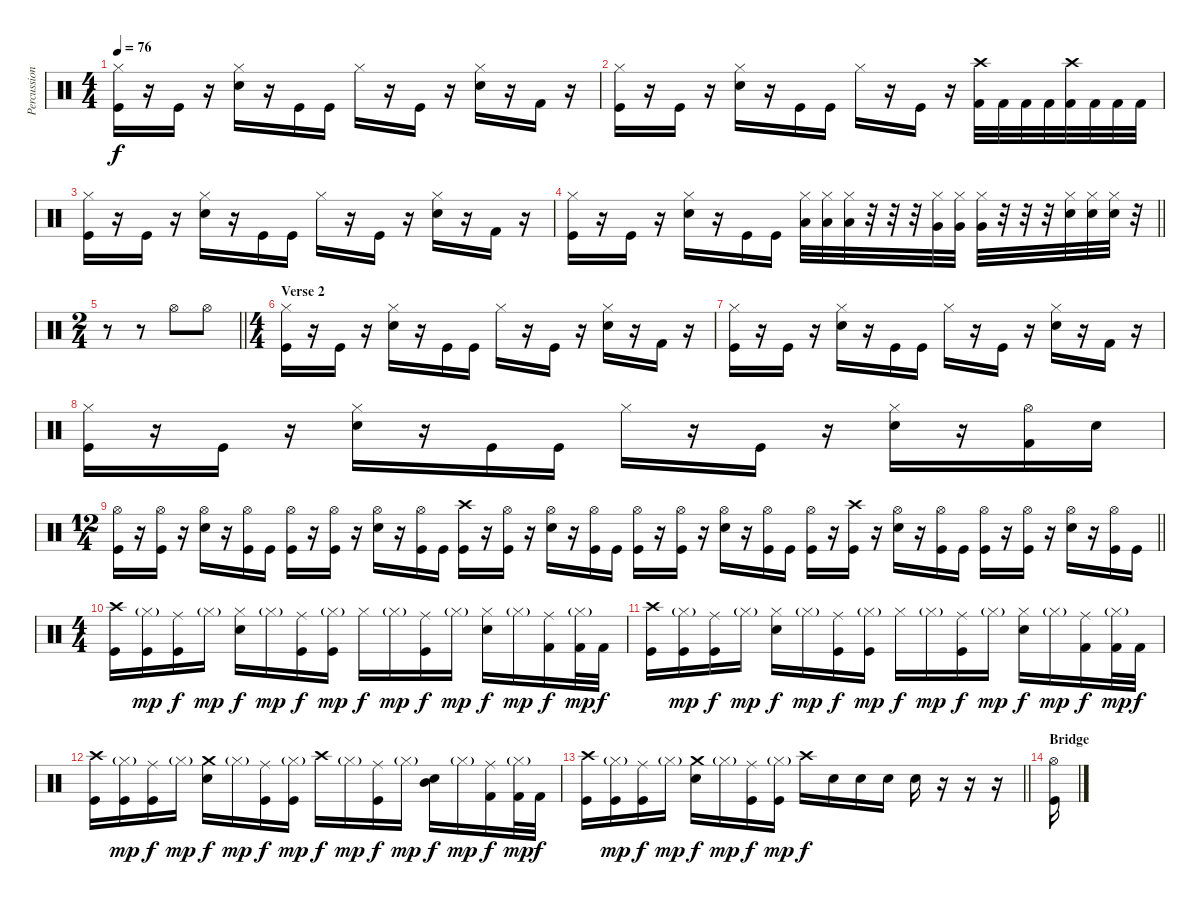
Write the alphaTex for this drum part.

\track ("Percussion" "Percussion") {instrument percussion}
\staff {score}
\articulation defaults
\ts (4 4)
\tempo 76
\clef neutral
\ks c
("Hi-Hat (closed)" "Kick (hit)").16{dy f} r.16 "Kick (hit)".16 r.16 ("Hi-Hat (closed)" "Electric Snare (hit)").16 r.16 "Kick (hit)".16 "Kick (hit)".16 "Hi-Hat (closed)".16 r.16 "Kick (hit)".16 r.16 ("Hi-Hat (closed)" "Electric Snare (hit)").16 r.16 "Kick (hit) 2".16 r.16 |
("Hi-Hat (closed)" "Kick (hit)").16 r.16 "Kick (hit)".16 r.16 ("Hi-Hat (closed)" "Electric Snare (hit)").16 r.16 "Kick (hit)".16 "Kick (hit)".16 "Hi-Hat (closed)".16 r.16 "Kick (hit)".16 r.16 ("Crash high (hit)" "Kick (hit) 2").32 "Kick (hit) 2".32 "Kick (hit) 2".32 "Kick (hit) 2".32 ("Crash high (hit)" "Kick (hit) 2").32 "Kick (hit) 2".32 "Kick (hit) 2".32 "Kick (hit) 2".32 |
("Hi-Hat (closed)" "Kick (hit)").16 r.16 "Kick (hit)".16 r.16 ("Hi-Hat (closed)" "Electric Snare (hit)").16 r.16 "Kick (hit)".16 "Kick (hit)".16 "Hi-Hat (closed)".16 r.16 "Kick (hit)".16 r.16 ("Hi-Hat (closed)" "Electric Snare (hit)").16 r.16 "Kick (hit) 2".16 r.16 |
\barLineRight lightlight
("Hi-Hat (closed)" "Kick (hit)").16 r.16 "Kick (hit)".16 r.16 ("Hi-Hat (closed)" "Electric Snare (hit)").16 r.16 "Kick (hit)".16 "Kick (hit)".16 ("Hi-Hat (closed)" "Low Tom (hit)").32 ("Hi-Hat (closed)" "Low Tom (hit)").32 ("Hi-Hat (closed)" "Low Tom (hit)").32 r.32 r.32 r.32 ("Hi-Hat (closed)" "Very Low Tom (hit)").32 ("Hi-Hat (closed)" "Very Low Tom (hit)").32 ("Hi-Hat (closed)" "Very Low Tom (hit)").32 r.32 r.32 r.32 ("Hi-Hat (closed)" "Electric Snare (hit)").32 ("Hi-Hat (closed)" "Electric Snare (hit)").32 ("Hi-Hat (closed)" "Electric Snare (hit)").32 r.32 |
\ts (2 4)
\barLineRight lightlight
r.8 r.8 "Hi-Hat (open)".8 "Hi-Hat (open)".8 |
\ts (4 4)
\section ("" "Verse 2")
("Hi-Hat (closed)" "Kick (hit)").16 r.16 "Kick (hit)".16 r.16 ("Hi-Hat (closed)" "Electric Snare (hit)").16 r.16 "Kick (hit)".16 "Kick (hit)".16 "Hi-Hat (closed)".16 r.16 "Kick (hit)".16 r.16 ("Hi-Hat (closed)" "Electric Snare (hit)").16 r.16 "Kick (hit) 2".16 r.16 |
("Hi-Hat (closed)" "Kick (hit)").16 r.16 "Kick (hit)".16 r.16 ("Hi-Hat (closed)" "Electric Snare (hit)").16 r.16 "Kick (hit)".16 "Kick (hit)".16 "Hi-Hat (closed)".16 r.16 "Kick (hit)".16 r.16 ("Hi-Hat (closed)" "Electric Snare (hit)").16 r.16 "Kick (hit) 2".16 r.16 |
("Hi-Hat (closed)" "Kick (hit)").16 r.16 "Kick (hit)".16 r.16 ("Hi-Hat (closed)" "Electric Snare (hit)").16 r.16 "Kick (hit)".16 "Kick (hit)".16 "Hi-Hat (closed)".16 r.16 "Kick (hit)".16 r.16 ("Hi-Hat (closed)" "Electric Snare (hit)").16 r.16 ("Hi-Hat (open)" "Kick (hit) 2").16 "Electric Snare (hit)".16 |
\ts (12 4)
\barLineRight lightlight
("Hi-Hat (open)" "Kick (hit)").16 r.16 ("Hi-Hat (open)" "Kick (hit)").16 r.16 ("Hi-Hat (open)" "Electric Snare (hit)").16 r.16 ("Hi-Hat (open)" "Kick (hit)").16 "Kick (hit)".16 ("Hi-Hat (open)" "Kick (hit)").16 r.16 ("Hi-Hat (open)" "Kick (hit)").16 r.16 ("Hi-Hat (open)" "Electric Snare (hit)").16 r.16 ("Hi-Hat (open)" "Kick (hit)").16 "Kick (hit)".16 ("Crash high (hit)" "Kick (hit)").16 r.16 ("Hi-Hat (open)" "Kick (hit)").16 r.16 ("Hi-Hat (open)" "Electric Snare (hit)").16 r.16 ("Hi-Hat (open)" "Kick (hit)").16 "Kick (hit)".16 ("Hi-Hat (open)" "Kick (hit)").16 r.16 ("Hi-Hat (open)" "Kick (hit)").16 r.16 ("Hi-Hat (open)" "Electric Snare (hit)").16 r.16 ("Hi-Hat (open)" "Kick (hit)").16 "Kick (hit)".16 ("Hi-Hat (open)" "Kick (hit)").16 r.16 ("Crash high (hit)" "Kick (hit)").16 r.16 ("Hi-Hat (open)" "Electric Snare (hit)").16 r.16 ("Hi-Hat (open)" "Kick (hit)").16 "Kick (hit)".16 ("Hi-Hat (open)" "Kick (hit)").16 r.16 ("Hi-Hat (open)" "Kick (hit)").16 r.16 ("Hi-Hat (open)" "Electric Snare (hit)").16 r.16 ("Hi-Hat (open)" "Kick (hit)").16 "Kick (hit)".16 |
\ts (4 4)
("Crash high (hit)" "Kick (hit)").16 ("Hi-Hat (closed)"{g} "Kick (hit)").16{dy mp} ("Ride (middle)" "Kick (hit)").16{dy f} "Hi-Hat (closed)"{g}.16{dy mp} ("Hi-Hat (closed)" "Electric Snare (hit)").16{dy f} "Hi-Hat (closed)"{g}.16{dy mp} ("Ride (middle)" "Kick (hit)").16{dy f} ("Hi-Hat (closed)"{g} "Kick (hit)").16{dy mp} "Hi-Hat (closed)".16{dy f} "Hi-Hat (closed)"{g}.16{dy mp} ("Ride (middle)" "Kick (hit)").16{dy f} "Hi-Hat (closed)"{g}.16{dy mp} ("Hi-Hat (closed)" "Electric Snare (hit)").16{dy f} "Hi-Hat (closed)"{g}.16{dy mp} ("Ride (middle)" "Kick (hit) 2").16{dy f} ("Hi-Hat (closed)"{g} "Kick (hit) 2").32{dy mp} "Kick (hit) 2".32{dy f} |
("Crash high (hit)" "Kick (hit)").16 ("Hi-Hat (closed)"{g} "Kick (hit)").16{dy mp} ("Ride (middle)" "Kick (hit)").16{dy f} "Hi-Hat (closed)"{g}.16{dy mp} ("Hi-Hat (closed)" "Electric Snare (hit)").16{dy f} "Hi-Hat (closed)"{g}.16{dy mp} ("Ride (middle)" "Kick (hit)").16{dy f} ("Hi-Hat (closed)"{g} "Kick (hit)").16{dy mp} "Hi-Hat (closed)".16{dy f} "Hi-Hat (closed)"{g}.16{dy mp} ("Ride (middle)" "Kick (hit)").16{dy f} "Hi-Hat (closed)"{g}.16{dy mp} ("Hi-Hat (closed)" "Electric Snare (hit)").16{dy f} "Hi-Hat (closed)"{g}.16{dy mp} ("Ride (middle)" "Kick (hit) 2").16{dy f} ("Hi-Hat (closed)"{g} "Kick (hit) 2").32{dy mp} "Kick (hit) 2".32{dy f} |
("Crash high (hit)" "Kick (hit)").16 ("Hi-Hat (closed)"{g} "Kick (hit)").16{dy mp} ("Ride (middle)" "Kick (hit)").16{dy f} "Hi-Hat (closed)"{g}.16{dy mp} ("Crash medium (hit)" "Electric Snare (hit)").16{dy f} "Hi-Hat (closed)"{g}.16{dy mp} ("Ride (middle)" "Kick (hit)").16{dy f} ("Hi-Hat (closed)"{g} "Kick (hit)").16{dy mp} "Crash high (hit)".16{dy f} "Hi-Hat (closed)"{g}.16{dy mp} ("Ride (middle)" "Kick (hit)").16{dy f} "Hi-Hat (closed)"{g}.16{dy mp} ("Mid Tom (hit)" "Electric Snare (hit)").16{dy f} "Hi-Hat (closed)"{g}.16{dy mp} ("Ride (middle)" "Kick (hit) 2").16{dy f} ("Hi-Hat (closed)"{g} "Kick (hit) 2").32{dy mp} "Kick (hit) 2".32{dy f} |
\barLineRight lightlight
("Crash high (hit)" "Kick (hit)").16 ("Hi-Hat (closed)"{g} "Kick (hit)").16{dy mp} ("Ride (middle)" "Kick (hit)").16{dy f} "Hi-Hat (closed)"{g}.16{dy mp} ("Crash medium (hit)" "Electric Snare (hit)").16{dy f} "Hi-Hat (closed)"{g}.16{dy mp} ("Ride (middle)" "Kick (hit)").16{dy f} ("Hi-Hat (closed)"{g} "Kick (hit)").16{dy mp} "Crash high (hit)".16{dy f} "Electric Snare (hit)".16 "Electric Snare (hit)".16 "Electric Snare (hit)".16 "Electric Snare (hit)".16 r.16 r.16 r.16 |
\section ("" "Bridge")
("Hi-Hat (open)" "Kick (hit)").16
